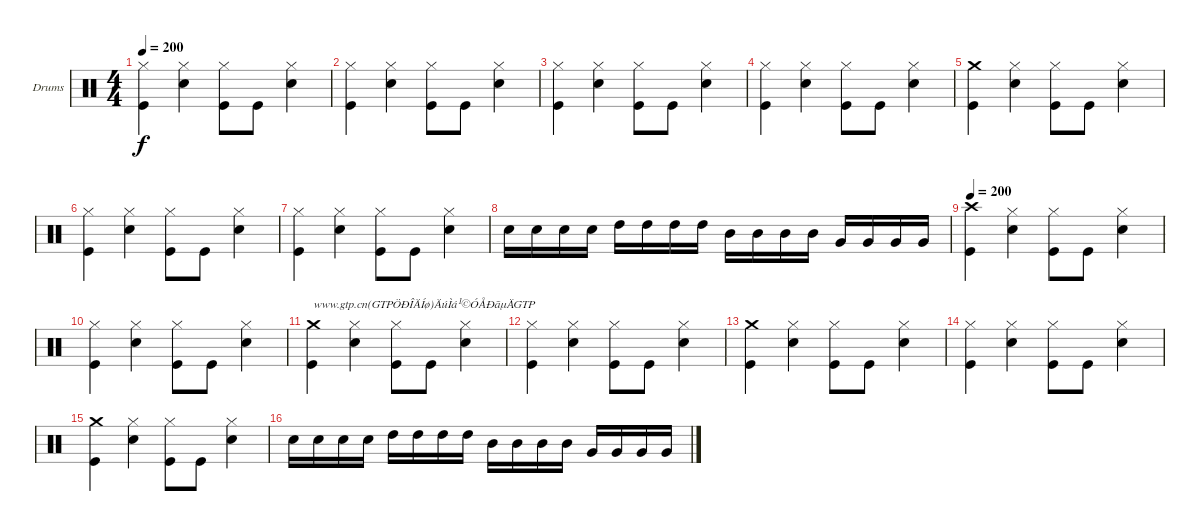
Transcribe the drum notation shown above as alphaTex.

\bracketExtendMode groupsimilarinstruments
\firstSystemTrackNameOrientation horizontal
\otherSystemsTrackNameOrientation horizontal
\track ("Drumkit" "Drums") {instrument percussion}
\staff {score}
\articulation defaults
\ts (4 4)
\tempo 200
\clef neutral
\ks c
("Hi-Hat (closed)" "Kick (hit)").4{dy f} ("Hi-Hat (closed)" "Snare (hit) 2").4 ("Hi-Hat (closed)" "Kick (hit)").8 "Kick (hit)".8 ("Hi-Hat (closed)" "Snare (hit) 2").4 |
("Hi-Hat (closed)" "Kick (hit)").4 ("Hi-Hat (closed)" "Snare (hit) 2").4 ("Hi-Hat (closed)" "Kick (hit)").8 "Kick (hit)".8 ("Hi-Hat (closed)" "Snare (hit) 2").4 |
("Hi-Hat (closed)" "Kick (hit)").4 ("Hi-Hat (closed)" "Snare (hit) 2").4 ("Hi-Hat (closed)" "Kick (hit)").8 "Kick (hit)".8 ("Hi-Hat (closed)" "Snare (hit) 2").4 |
("Hi-Hat (closed)" "Kick (hit)").4 ("Hi-Hat (closed)" "Snare (hit) 2").4 ("Hi-Hat (closed)" "Kick (hit)").8 "Kick (hit)".8 ("Hi-Hat (closed)" "Snare (hit) 2").4 |
("Crash medium (hit)" "Kick (hit)").4 ("Hi-Hat (closed)" "Snare (hit) 2").4 ("Hi-Hat (closed)" "Kick (hit)").8 "Kick (hit)".8 ("Hi-Hat (closed)" "Snare (hit) 2").4 |
("Hi-Hat (closed)" "Kick (hit)").4 ("Hi-Hat (closed)" "Snare (hit) 2").4 ("Hi-Hat (closed)" "Kick (hit)").8 "Kick (hit)".8 ("Hi-Hat (closed)" "Snare (hit) 2").4 |
("Hi-Hat (closed)" "Kick (hit)").4 ("Hi-Hat (closed)" "Snare (hit) 2").4 ("Hi-Hat (closed)" "Kick (hit)").8 "Kick (hit)".8 ("Hi-Hat (closed)" "Snare (hit) 2").4 |
"Snare (hit) 2".16 "Snare (hit) 2".16 "Snare (hit) 2".16 "Snare (hit) 2".16 "High Tom (hit)".16 "High Tom (hit)".16 "High Tom (hit)".16 "High Tom (hit)".16 "Mid Tom (hit)".16 "Mid Tom (hit)".16 "Mid Tom (hit)".16 "Mid Tom (hit)".16 "Very Low Tom (hit)".16 "Very Low Tom (hit)".16 "Very Low Tom (hit)".16 "Very Low Tom (hit)".16 |
\tempo 200
("Crash high (hit)" "Kick (hit)").4 ("Hi-Hat (closed)" "Snare (hit) 2").4 ("Hi-Hat (closed)" "Kick (hit)").8 "Kick (hit)".8 ("Hi-Hat (closed)" "Snare (hit) 2").4 |
("Hi-Hat (closed)" "Kick (hit)").4 ("Hi-Hat (closed)" "Snare (hit) 2").4 ("Hi-Hat (closed)" "Kick (hit)").8 "Kick (hit)".8 ("Hi-Hat (closed)" "Snare (hit) 2").4 |
("Crash medium (hit)" "Kick (hit)").4{txt "www.gtp.cn(GTPÖÐÎÄÍø)ÄúÌá¹©ÓÅÐãµÄGTP"} ("Hi-Hat (closed)" "Snare (hit) 2").4 ("Hi-Hat (closed)" "Kick (hit)").8 "Kick (hit)".8 ("Hi-Hat (closed)" "Snare (hit) 2").4 |
("Hi-Hat (closed)" "Kick (hit)").4 ("Hi-Hat (closed)" "Snare (hit) 2").4 ("Hi-Hat (closed)" "Kick (hit)").8 "Kick (hit)".8 ("Hi-Hat (closed)" "Snare (hit) 2").4 |
("Crash medium (hit)" "Kick (hit)").4 ("Hi-Hat (closed)" "Snare (hit) 2").4 ("Hi-Hat (closed)" "Kick (hit)").8 "Kick (hit)".8 ("Hi-Hat (closed)" "Snare (hit) 2").4 |
("Hi-Hat (closed)" "Kick (hit)").4 ("Hi-Hat (closed)" "Snare (hit) 2").4 ("Hi-Hat (closed)" "Kick (hit)").8 "Kick (hit)".8 ("Hi-Hat (closed)" "Snare (hit) 2").4 |
("Crash medium (hit)" "Kick (hit)").4 ("Hi-Hat (closed)" "Snare (hit) 2").4 ("Hi-Hat (closed)" "Kick (hit)").8 "Kick (hit)".8 ("Hi-Hat (closed)" "Snare (hit) 2").4 |
"Snare (hit) 2".16 "Snare (hit) 2".16 "Snare (hit) 2".16 "Snare (hit) 2".16 "High Tom (hit)".16 "High Tom (hit)".16 "High Tom (hit)".16 "High Tom (hit)".16 "Mid Tom (hit)".16 "Mid Tom (hit)".16 "Mid Tom (hit)".16 "Mid Tom (hit)".16 "Very Low Tom (hit)".16 "Very Low Tom (hit)".16 "Very Low Tom (hit)".16 "Very Low Tom (hit)".16
